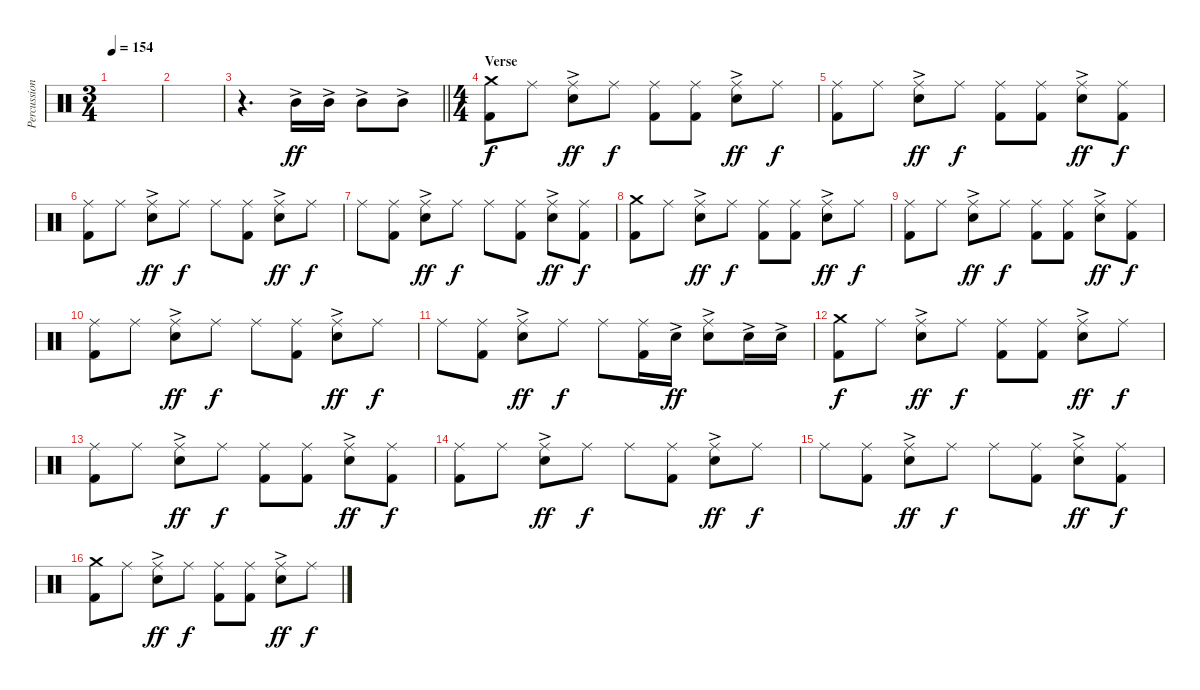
\track ("Percussion" "Percussion") {instrument percussion}
\staff {score}
\articulation defaults
\ts (3 4)
\tempo 154
\clef neutral
\ks c
|
|
\barLineRight lightlight
r.4{d} "Mid Tom (hit)"{ac}.16{dy ff} "Mid Tom (hit)"{ac}.16 "Mid Tom (hit)"{ac}.8 "Mid Tom (hit)"{ac}.8 |
\ts (4 4)
\section ("" "Verse")
("Crash medium (hit)" "Kick (hit) 2").8{dy f} "Ride (middle)".8 ("Ride (middle)" "Electric Snare (hit)"{ac}).8{dy ff} "Ride (middle)".8{dy f} ("Ride (middle)" "Kick (hit) 2").8 ("Ride (middle)" "Kick (hit) 2").8 ("Ride (middle)" "Electric Snare (hit)"{ac}).8{dy ff} "Ride (middle)".8{dy f} |
("Ride (middle)" "Kick (hit) 2").8 "Ride (middle)".8 ("Ride (middle)" "Electric Snare (hit)"{ac}).8{dy ff} "Ride (middle)".8{dy f} ("Ride (middle)" "Kick (hit) 2").8 ("Ride (middle)" "Kick (hit) 2").8 ("Ride (middle)" "Electric Snare (hit)"{ac}).8{dy ff} ("Ride (middle)" "Kick (hit) 2").8{dy f} |
("Ride (middle)" "Kick (hit) 2").8 "Ride (middle)".8 ("Ride (middle)" "Electric Snare (hit)"{ac}).8{dy ff} "Ride (middle)".8{dy f} "Ride (middle)".8 ("Ride (middle)" "Kick (hit) 2").8 ("Ride (middle)" "Electric Snare (hit)"{ac}).8{dy ff} "Ride (middle)".8{dy f} |
"Ride (middle)".8 ("Ride (middle)" "Kick (hit) 2").8 ("Ride (middle)" "Electric Snare (hit)"{ac}).8{dy ff} "Ride (middle)".8{dy f} "Ride (middle)".8 ("Ride (middle)" "Kick (hit) 2").8 ("Ride (middle)" "Electric Snare (hit)"{ac}).8{dy ff} ("Ride (middle)" "Kick (hit) 2").8{dy f} |
("Crash medium (hit)" "Kick (hit) 2").8 "Ride (middle)".8 ("Ride (middle)" "Electric Snare (hit)"{ac}).8{dy ff} "Ride (middle)".8{dy f} ("Ride (middle)" "Kick (hit) 2").8 ("Ride (middle)" "Kick (hit) 2").8 ("Ride (middle)" "Electric Snare (hit)"{ac}).8{dy ff} "Ride (middle)".8{dy f} |
("Ride (middle)" "Kick (hit) 2").8 "Ride (middle)".8 ("Ride (middle)" "Electric Snare (hit)"{ac}).8{dy ff} "Ride (middle)".8{dy f} ("Ride (middle)" "Kick (hit) 2").8 ("Ride (middle)" "Kick (hit) 2").8 ("Ride (middle)" "Electric Snare (hit)"{ac}).8{dy ff} ("Ride (middle)" "Kick (hit) 2").8{dy f} |
("Ride (middle)" "Kick (hit) 2").8 "Ride (middle)".8 ("Ride (middle)" "Electric Snare (hit)"{ac}).8{dy ff} "Ride (middle)".8{dy f} "Ride (middle)".8 ("Ride (middle)" "Kick (hit) 2").8 ("Ride (middle)" "Electric Snare (hit)"{ac}).8{dy ff} "Ride (middle)".8{dy f} |
"Ride (middle)".8 ("Ride (middle)" "Kick (hit) 2").8 ("Ride (middle)" "Electric Snare (hit)"{ac}).8{dy ff} "Ride (middle)".8{dy f} "Ride (middle)".8 ("Ride (middle)" "Kick (hit) 2").16 "Electric Snare (hit)"{ac}.16{dy ff} ("Ride (middle)" "Electric Snare (hit)"{ac}).8 "Electric Snare (hit)"{ac}.16 "Electric Snare (hit)"{ac}.16 |
("Crash medium (hit)" "Kick (hit) 2").8{dy f} "Ride (middle)".8 ("Ride (middle)" "Electric Snare (hit)"{ac}).8{dy ff} "Ride (middle)".8{dy f} ("Ride (middle)" "Kick (hit) 2").8 ("Ride (middle)" "Kick (hit) 2").8 ("Ride (middle)" "Electric Snare (hit)"{ac}).8{dy ff} "Ride (middle)".8{dy f} |
("Ride (middle)" "Kick (hit) 2").8 "Ride (middle)".8 ("Ride (middle)" "Electric Snare (hit)"{ac}).8{dy ff} "Ride (middle)".8{dy f} ("Ride (middle)" "Kick (hit) 2").8 ("Ride (middle)" "Kick (hit) 2").8 ("Ride (middle)" "Electric Snare (hit)"{ac}).8{dy ff} ("Ride (middle)" "Kick (hit) 2").8{dy f} |
("Ride (middle)" "Kick (hit) 2").8 "Ride (middle)".8 ("Ride (middle)" "Electric Snare (hit)"{ac}).8{dy ff} "Ride (middle)".8{dy f} "Ride (middle)".8 ("Ride (middle)" "Kick (hit) 2").8 ("Ride (middle)" "Electric Snare (hit)"{ac}).8{dy ff} "Ride (middle)".8{dy f} |
"Ride (middle)".8 ("Ride (middle)" "Kick (hit) 2").8 ("Ride (middle)" "Electric Snare (hit)"{ac}).8{dy ff} "Ride (middle)".8{dy f} "Ride (middle)".8 ("Ride (middle)" "Kick (hit) 2").8 ("Ride (middle)" "Electric Snare (hit)"{ac}).8{dy ff} ("Ride (middle)" "Kick (hit) 2").8{dy f} |
("Crash medium (hit)" "Kick (hit) 2").8 "Ride (middle)".8 ("Ride (middle)" "Electric Snare (hit)"{ac}).8{dy ff} "Ride (middle)".8{dy f} ("Ride (middle)" "Kick (hit) 2").8 ("Ride (middle)" "Kick (hit) 2").8 ("Ride (middle)" "Electric Snare (hit)"{ac}).8{dy ff} "Ride (middle)".8{dy f}
